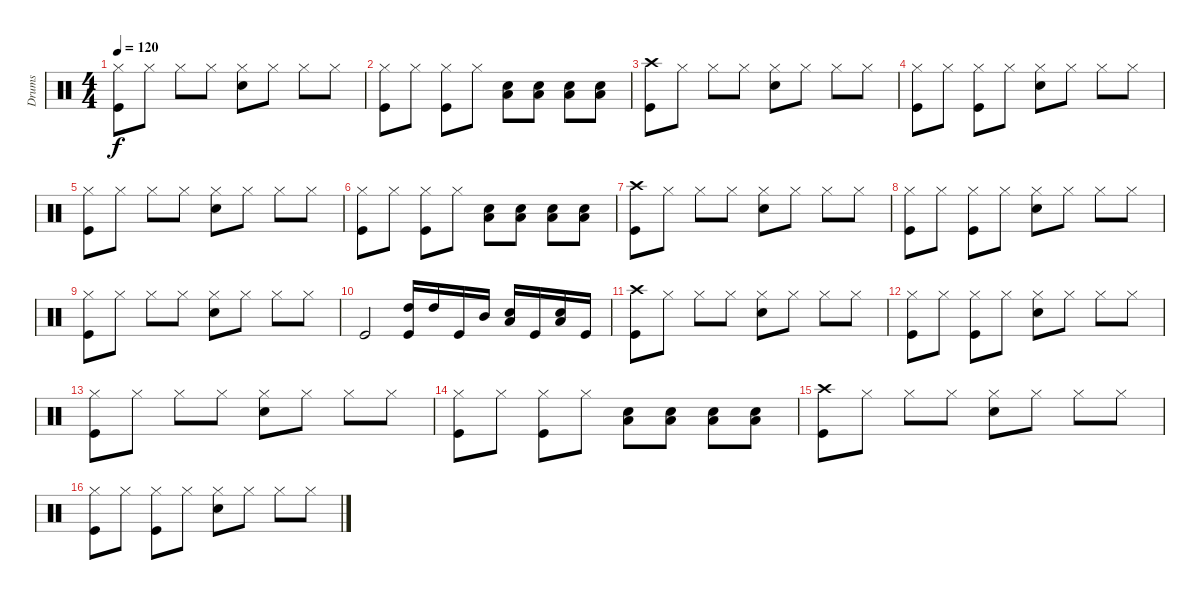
\track ("Drums" "Drums") {instrument percussion}
\staff {score}
\articulation defaults
\ts (4 4)
\tempo 120
\clef neutral
\ks c
("Hi-Hat (closed)" "Kick (hit)").8{dy f} "Hi-Hat (closed)".8 "Hi-Hat (closed)".8 "Hi-Hat (closed)".8 ("Hi-Hat (closed)" "Snare (hit) 2").8 "Hi-Hat (closed)".8 "Hi-Hat (closed)".8 "Hi-Hat (closed)".8 |
("Hi-Hat (closed)" "Kick (hit)").8 "Hi-Hat (closed)".8 ("Hi-Hat (closed)" "Kick (hit)").8 "Hi-Hat (closed)".8 ("Low Tom (hit)" "Snare (hit) 2").8 ("Low Tom (hit)" "Snare (hit) 2").8 ("Low Tom (hit)" "Snare (hit) 2").8 ("Low Tom (hit)" "Snare (hit) 2").8 |
("Crash high (hit)" "Kick (hit)").8 "Hi-Hat (closed)".8 "Hi-Hat (closed)".8 "Hi-Hat (closed)".8 ("Hi-Hat (closed)" "Snare (hit) 2").8 "Hi-Hat (closed)".8 "Hi-Hat (closed)".8 "Hi-Hat (closed)".8 |
("Hi-Hat (closed)" "Kick (hit)").8 "Hi-Hat (closed)".8 ("Hi-Hat (closed)" "Kick (hit)").8 "Hi-Hat (closed)".8 ("Hi-Hat (closed)" "Snare (hit) 2").8 "Hi-Hat (closed)".8 "Hi-Hat (closed)".8 "Hi-Hat (closed)".8 |
("Hi-Hat (closed)" "Kick (hit)").8 "Hi-Hat (closed)".8 "Hi-Hat (closed)".8 "Hi-Hat (closed)".8 ("Hi-Hat (closed)" "Snare (hit) 2").8 "Hi-Hat (closed)".8 "Hi-Hat (closed)".8 "Hi-Hat (closed)".8 |
("Hi-Hat (closed)" "Kick (hit)").8 "Hi-Hat (closed)".8 ("Hi-Hat (closed)" "Kick (hit)").8 "Hi-Hat (closed)".8 ("Low Tom (hit)" "Snare (hit) 2").8 ("Low Tom (hit)" "Snare (hit) 2").8 ("Low Tom (hit)" "Snare (hit) 2").8 ("Low Tom (hit)" "Snare (hit) 2").8 |
("Crash high (hit)" "Kick (hit)").8 "Hi-Hat (closed)".8 "Hi-Hat (closed)".8 "Hi-Hat (closed)".8 ("Hi-Hat (closed)" "Snare (hit) 2").8 "Hi-Hat (closed)".8 "Hi-Hat (closed)".8 "Hi-Hat (closed)".8 |
("Hi-Hat (closed)" "Kick (hit)").8 "Hi-Hat (closed)".8 ("Hi-Hat (closed)" "Kick (hit)").8 "Hi-Hat (closed)".8 ("Hi-Hat (closed)" "Snare (hit) 2").8 "Hi-Hat (closed)".8 "Hi-Hat (closed)".8 "Hi-Hat (closed)".8 |
("Hi-Hat (closed)" "Kick (hit)").8 "Hi-Hat (closed)".8 "Hi-Hat (closed)".8 "Hi-Hat (closed)".8 ("Hi-Hat (closed)" "Snare (hit) 2").8 "Hi-Hat (closed)".8 "Hi-Hat (closed)".8 "Hi-Hat (closed)".8 |
"Kick (hit)".2 ("High Tom (hit)" "Kick (hit)").16 "High Tom (hit)".16 "Kick (hit)".16 "Mid Tom (hit)".16 ("Low Tom (hit)" "Snare (hit) 2").16 "Kick (hit)".16 ("Low Tom (hit)" "Snare (hit) 2").16 "Kick (hit)".16 |
("Crash high (hit)" "Kick (hit)").8 "Hi-Hat (closed)".8 "Hi-Hat (closed)".8 "Hi-Hat (closed)".8 ("Hi-Hat (closed)" "Snare (hit) 2").8 "Hi-Hat (closed)".8 "Hi-Hat (closed)".8 "Hi-Hat (closed)".8 |
("Hi-Hat (closed)" "Kick (hit)").8 "Hi-Hat (closed)".8 ("Hi-Hat (closed)" "Kick (hit)").8 "Hi-Hat (closed)".8 ("Hi-Hat (closed)" "Snare (hit) 2").8 "Hi-Hat (closed)".8 "Hi-Hat (closed)".8 "Hi-Hat (closed)".8 |
("Hi-Hat (closed)" "Kick (hit)").8 "Hi-Hat (closed)".8 "Hi-Hat (closed)".8 "Hi-Hat (closed)".8 ("Hi-Hat (closed)" "Snare (hit) 2").8 "Hi-Hat (closed)".8 "Hi-Hat (closed)".8 "Hi-Hat (closed)".8 |
("Hi-Hat (closed)" "Kick (hit)").8 "Hi-Hat (closed)".8 ("Hi-Hat (closed)" "Kick (hit)").8 "Hi-Hat (closed)".8 ("Low Tom (hit)" "Snare (hit) 2").8 ("Low Tom (hit)" "Snare (hit) 2").8 ("Low Tom (hit)" "Snare (hit) 2").8 ("Low Tom (hit)" "Snare (hit) 2").8 |
("Crash high (hit)" "Kick (hit)").8 "Hi-Hat (closed)".8 "Hi-Hat (closed)".8 "Hi-Hat (closed)".8 ("Hi-Hat (closed)" "Snare (hit) 2").8 "Hi-Hat (closed)".8 "Hi-Hat (closed)".8 "Hi-Hat (closed)".8 |
("Hi-Hat (closed)" "Kick (hit)").8 "Hi-Hat (closed)".8 ("Hi-Hat (closed)" "Kick (hit)").8 "Hi-Hat (closed)".8 ("Hi-Hat (closed)" "Snare (hit) 2").8 "Hi-Hat (closed)".8 "Hi-Hat (closed)".8 "Hi-Hat (closed)".8
